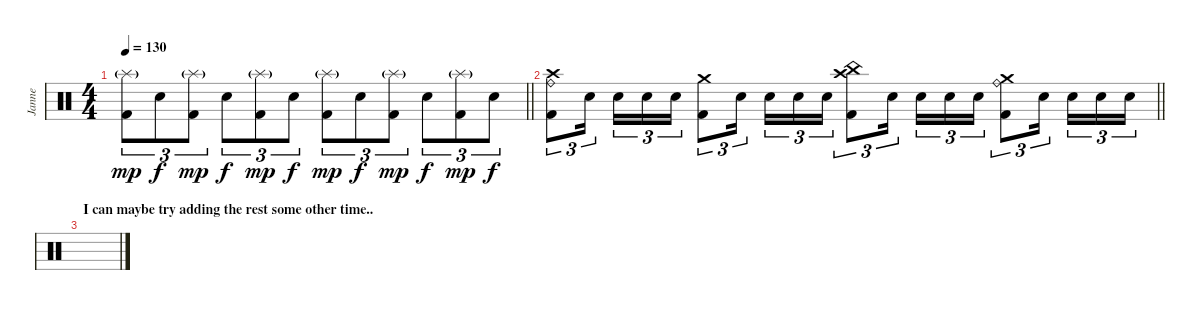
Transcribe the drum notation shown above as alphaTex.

\track ("Janne" "Janne") {instrument percussion}
\staff {score}
\articulation defaults
\ts (4 4)
\tempo 130
\clef neutral
\barLineRight lightlight
\ks c
("Kick (hit) 2" "Splash (hit)"{g}).8{tu (3 2) dy mp} "Snare (hit) 2".8{tu (3 2) dy f} ("Kick (hit) 2" "Splash (hit)"{g}).8{tu (3 2) dy mp} "Snare (hit) 2".8{tu (3 2) dy f} ("Kick (hit) 2" "Splash (hit)"{g}).8{tu (3 2) dy mp} "Snare (hit) 2".8{tu (3 2) dy f} ("Kick (hit) 2" "Splash (hit)"{g}).8{tu (3 2) dy mp} "Snare (hit) 2".8{tu (3 2) dy f} ("Kick (hit) 2" "Splash (hit)"{g}).8{tu (3 2) dy mp} "Snare (hit) 2".8{tu (3 2) dy f} ("Kick (hit) 2" "Splash (hit)"{g}).8{tu (3 2) dy mp} "Snare (hit) 2".8{tu (3 2) dy f} |
\section ("" "")
\barLineRight lightlight
("Kick (hit) 2" "Ride (bell)" "Crash high (hit)").8{tu (3 2)} "Snare (hit) 2".16{tu (3 2) beam splitsecondary} "Snare (hit) 2".16{tu (3 2)} "Snare (hit) 2".16{tu (3 2)} "Snare (hit) 2".16{tu (3 2)} ("Kick (hit) 2" "Crash medium (hit)").8{tu (3 2)} "Snare (hit) 2".16{tu (3 2) beam splitsecondary} "Snare (hit) 2".16{tu (3 2)} "Snare (hit) 2".16{tu (3 2)} "Snare (hit) 2".16{tu (3 2)} ("Kick (hit) 2" "China (hit)" "Crash high (hit)").8{tu (3 2)} "Snare (hit) 2".16{tu (3 2) beam splitsecondary} "Snare (hit) 2".16{tu (3 2)} "Snare (hit) 2".16{tu (3 2)} "Snare (hit) 2".16{tu (3 2)} ("Kick (hit) 2" "Ride (bell)" "Crash medium (hit)").8{tu (3 2)} "Snare (hit) 2".16{tu (3 2) beam splitsecondary} "Snare (hit) 2".16{tu (3 2)} "Snare (hit) 2".16{tu (3 2)} "Snare (hit) 2".16{tu (3 2)} |
\section ("" "I can maybe try adding the rest some other time..")
